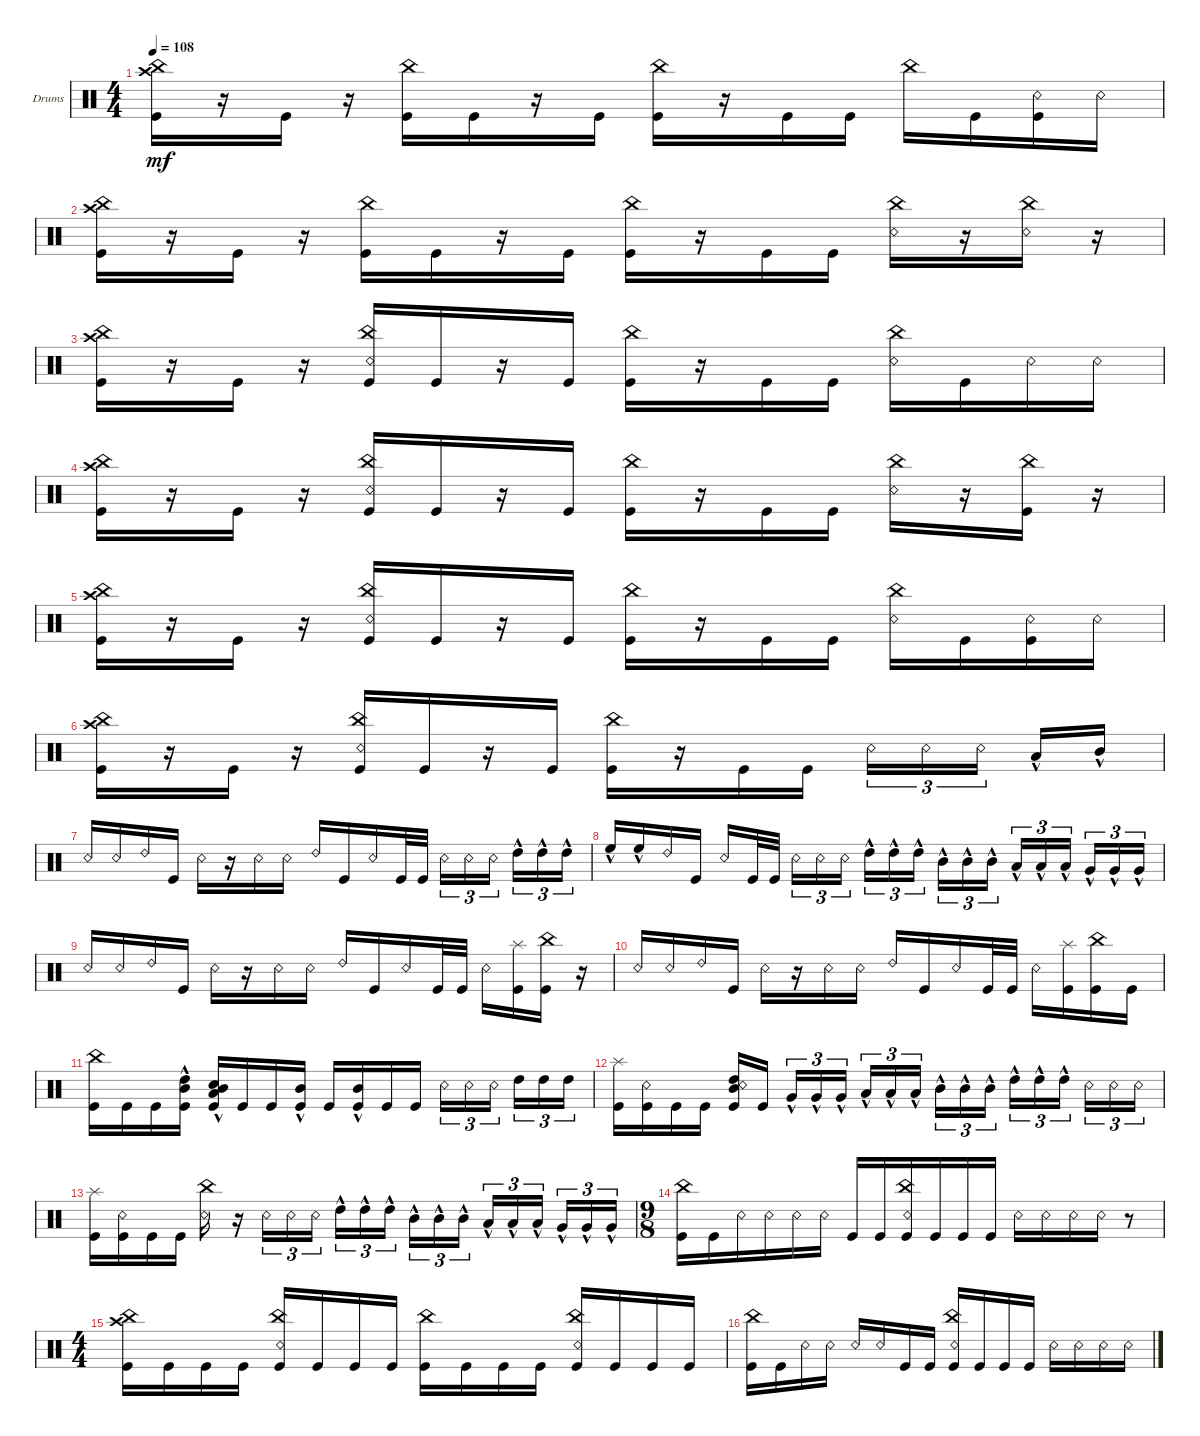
\defaultSystemsLayout 4
\bracketExtendMode groupsimilarinstruments
\firstSystemTrackNameOrientation horizontal
\otherSystemsTrackNameOrientation horizontal
\track ("Drumkit" "Drums") {solo instrument percussion}
\staff {score}
\articulation defaults
\ts (4 4)
\tempo 108
\clef neutral
\ks c
("Kick (hit)" "China (hit)" "Crash high (hit)").16{dy mf} r.16 "Kick (hit)".16 r.16 ("Kick (hit)" "China (hit)").16 "Kick (hit)".16 r.16 "Kick (hit)".16 ("Kick (hit)" "China (hit)").16 r.16 "Kick (hit)".16 "Kick (hit)".16 "China (hit)".16 "Kick (hit)".16 ("Snare (rim shot)" "Kick (hit)").16 "Snare (rim shot)".16 |
("Kick (hit)" "China (hit)" "Crash high (hit)").16 r.16 "Kick (hit)".16 r.16 ("Kick (hit)" "China (hit)").16 "Kick (hit)".16 r.16 "Kick (hit)".16 ("Kick (hit)" "China (hit)").16 r.16 "Kick (hit)".16 "Kick (hit)".16 ("China (hit)" "Snare (rim shot)").16 r.16 ("Snare (rim shot)" "China (hit)").16 r.16 |
("Kick (hit)" "China (hit)" "Crash high (hit)").16 r.16 "Kick (hit)".16 r.16 ("Kick (hit)" "China (hit)" "Snare (rim shot)").16 "Kick (hit)".16 r.16 "Kick (hit)".16 ("Kick (hit)" "China (hit)").16 r.16 "Kick (hit)".16 "Kick (hit)".16 ("China (hit)" "Snare (rim shot)").16 "Kick (hit)".16 "Snare (rim shot)".16 "Snare (rim shot)".16 |
("Kick (hit)" "China (hit)" "Crash high (hit)").16 r.16 "Kick (hit)".16 r.16 ("Kick (hit)" "China (hit)" "Snare (rim shot)").16 "Kick (hit)".16 r.16 "Kick (hit)".16 ("Kick (hit)" "China (hit)").16 r.16 "Kick (hit)".16 "Kick (hit)".16 ("China (hit)" "Snare (rim shot)").16 r.16 ("China (hit)" "Kick (hit)").16 r.16 |
("Kick (hit)" "China (hit)" "Crash high (hit)").16 r.16 "Kick (hit)".16 r.16 ("Kick (hit)" "China (hit)" "Snare (rim shot)").16 "Kick (hit)".16 r.16 "Kick (hit)".16 ("Kick (hit)" "China (hit)").16 r.16 "Kick (hit)".16 "Kick (hit)".16 ("China (hit)" "Snare (rim shot)").16 "Kick (hit)".16 ("Snare (rim shot)" "Kick (hit)").16 "Snare (rim shot)".16 |
("Kick (hit)" "China (hit)" "Crash high (hit)").16 r.16 "Kick (hit)".16 r.16 ("Kick (hit)" "China (hit)" "Snare (rim shot)").16 "Kick (hit)".16 r.16 "Kick (hit)".16 ("Kick (hit)" "China (hit)").16 r.16 "Kick (hit)".16 "Kick (hit)".16 "Snare (rim shot)".16{tu (3 2)} "Snare (rim shot)".16{tu (3 2)} "Snare (rim shot)".16{tu (3 2)} "Low Tom (hit)"{hac}.16 "Mid Tom (hit)"{hac}.16 |
"Snare (rim shot)".16 "Snare (rim shot)".16 "Ride (bell) 2".16 "Kick (hit)".16 "Snare (rim shot)".16 r.16 "Snare (rim shot)".16 "Snare (rim shot)".16 "Ride (bell) 2".16 "Kick (hit)".16 "Snare (rim shot)".16 "Kick (hit)".32 "Kick (hit)".32 "Snare (rim shot)".16{tu (3 2)} "Snare (rim shot)".16{tu (3 2)} "Snare (rim shot)".16{tu (3 2)} "High Tom (hit)"{hac}.16{tu (3 2)} "High Tom (hit)"{hac}.16{tu (3 2)} "High Tom (hit)"{hac}.16{tu (3 2)} |
"High Floor Tom (hit)"{hac}.16 "High Floor Tom (hit)"{hac}.16 "Ride (bell) 2".16 "Kick (hit)".16 "Snare (rim shot)".16 "Kick (hit)".32 "Kick (hit)".32 "Snare (rim shot)".16{tu (3 2)} "Snare (rim shot)".16{tu (3 2)} "Snare (rim shot)".16{tu (3 2)} "High Tom (hit)"{hac}.16{tu (3 2)} "High Tom (hit)"{hac}.16{tu (3 2)} "High Tom (hit)"{hac}.16{tu (3 2)} "Mid Tom (hit)"{hac}.16{tu (3 2)} "Mid Tom (hit)"{hac}.16{tu (3 2)} "Mid Tom (hit)"{hac}.16{tu (3 2)} "Low Tom (hit)"{hac}.16{tu (3 2)} "Low Tom (hit)"{hac}.16{tu (3 2)} "Low Tom (hit)"{hac}.16{tu (3 2)} "Very Low Tom (hit)"{hac}.16{tu (3 2)} "Very Low Tom (hit)"{hac}.16{tu (3 2)} "Very Low Tom (hit)"{hac}.16{tu (3 2)} |
"Snare (rim shot)".16 "Snare (rim shot)".16 "Ride (bell) 2".16 "Kick (hit)".16 "Snare (rim shot)".16 r.16 "Snare (rim shot)".16 "Snare (rim shot)".16 "Ride (bell) 2".16 "Kick (hit)".16 "Snare (rim shot)".16 "Kick (hit)".32 "Kick (hit)".32 "Snare (rim shot)".16 ("Splash (hit)" "Kick (hit)").16 ("China (hit)" "Kick (hit)").16 r.16 |
"Snare (rim shot)".16 "Snare (rim shot)".16 "Ride (bell) 2".16 "Kick (hit)".16 "Snare (rim shot)".16 r.16 "Snare (rim shot)".16 "Snare (rim shot)".16 "Ride (bell) 2".16 "Kick (hit)".16 "Snare (rim shot)".16 "Kick (hit)".32 "Kick (hit)".32 "Snare (rim shot)".16 ("Splash (hit)" "Kick (hit)").16 ("China (hit)" "Kick (hit)").16 "Kick (hit)".16 |
("Kick (hit)" "China (hit)").16 "Kick (hit)".16 "Kick (hit)".16 ("Kick (hit)" "High Tom (hit)"{hac} "Mid Tom (hit)"{hac}).16 ("Kick (hit)" "Mid Tom (hit)"{hac} "Snare (hit) 2"{hac} "Low Tom (hit)"{hac}).16 "Kick (hit)".16 "Kick (hit)".16 ("Kick (hit)" "Mid Tom (hit)"{hac}).16 "Kick (hit)".16 ("Kick (hit)" "Mid Tom (hit)"{hac}).16 "Kick (hit)".16 "Kick (hit)".16 "Snare (rim shot)".16{tu (3 2)} "Snare (rim shot)".16{tu (3 2)} "Snare (rim shot)".16{tu (3 2)} "High Tom (hit)".16{tu (3 2)} "High Tom (hit)".16{tu (3 2)} "High Tom (hit)".16{tu (3 2)} |
("Kick (hit)" "Splash (hit)").16 ("Kick (hit)" "Snare (rim shot)").16 "Kick (hit)".16 "Kick (hit)".16 ("Kick (hit)" "High Tom (hit)" "Mid Tom (hit)" "Snare (rim shot)").16 "Kick (hit)".16 "Very Low Tom (hit)"{hac}.16{tu (3 2)} "Very Low Tom (hit)"{hac}.16{tu (3 2)} "Very Low Tom (hit)"{hac}.16{tu (3 2)} "Low Tom (hit)"{hac}.16{tu (3 2)} "Low Tom (hit)"{hac}.16{tu (3 2)} "Low Tom (hit)"{hac}.16{tu (3 2)} "Mid Tom (hit)"{hac}.16{tu (3 2)} "Mid Tom (hit)"{hac}.16{tu (3 2)} "Mid Tom (hit)"{hac}.16{tu (3 2)} "High Tom (hit)"{hac}.16{tu (3 2)} "High Tom (hit)"{hac}.16{tu (3 2)} "High Tom (hit)"{hac}.16{tu (3 2)} "Snare (rim shot)".16{tu (3 2)} "Snare (rim shot)".16{tu (3 2)} "Snare (rim shot)".16{tu (3 2)} |
("Splash (hit)" "Kick (hit)").16 ("Kick (hit)" "Snare (rim shot)").16 "Kick (hit)".16 "Kick (hit)".16 ("Snare (rim shot)" "China (hit)").16 r.16 "Snare (rim shot)".16{tu (3 2)} "Snare (rim shot)".16{tu (3 2)} "Snare (rim shot)".16{tu (3 2)} "High Tom (hit)"{hac}.16{tu (3 2)} "High Tom (hit)"{hac}.16{tu (3 2)} "High Tom (hit)"{hac}.16{tu (3 2)} "Mid Tom (hit)"{hac}.16{tu (3 2)} "Mid Tom (hit)"{hac}.16{tu (3 2)} "Mid Tom (hit)"{hac}.16{tu (3 2)} "Low Tom (hit)"{hac}.16{tu (3 2)} "Low Tom (hit)"{hac}.16{tu (3 2)} "Low Tom (hit)"{hac}.16{tu (3 2)} "Very Low Tom (hit)"{hac}.16{tu (3 2)} "Very Low Tom (hit)"{hac}.16{tu (3 2)} "Very Low Tom (hit)"{hac}.16{tu (3 2)} |
\ts (9 8)
("Kick (hit)" "China (hit)").16 "Kick (hit)".16 "Snare (rim shot)".16 "Snare (rim shot)".16 "Snare (rim shot)".16 "Snare (rim shot)".16 "Kick (hit)".16 "Kick (hit)".16 ("Kick (hit)" "Snare (rim shot)" "China (hit)").16 "Kick (hit)".16 "Kick (hit)".16 "Kick (hit)".16 "Snare (rim shot)".16 "Snare (rim shot)".16 "Snare (rim shot)".16 "Snare (rim shot)".16 r.8 |
\ts (4 4)
("Kick (hit)" "China (hit)" "Crash high (hit)").16 "Kick (hit)".16 "Kick (hit)".16 "Kick (hit)".16 ("Kick (hit)" "China (hit)" "Snare (rim shot)").16 "Kick (hit)".16 "Kick (hit)".16 "Kick (hit)".16 ("Kick (hit)" "China (hit)").16 "Kick (hit)".16 "Kick (hit)".16 "Kick (hit)".16 ("Kick (hit)" "China (hit)" "Snare (rim shot)").16 "Kick (hit)".16 "Kick (hit)".16 "Kick (hit)".16 |
("Kick (hit)" "China (hit)").16 "Kick (hit)".16 "Snare (rim shot)".16 "Snare (rim shot)".16 "Snare (rim shot)".16 "Snare (rim shot)".16 "Kick (hit)".16 "Kick (hit)".16 ("Kick (hit)" "Snare (rim shot)" "China (hit)").16 "Kick (hit)".16 "Kick (hit)".16 "Kick (hit)".16 "Snare (rim shot)".16 "Snare (rim shot)".16 "Snare (rim shot)".16 "Snare (rim shot)".16
